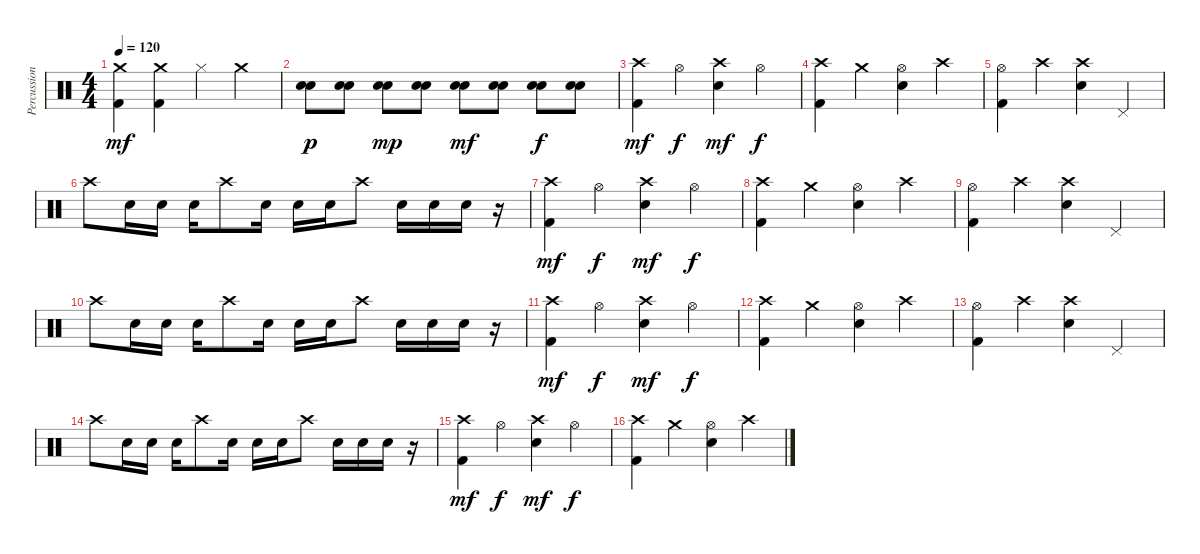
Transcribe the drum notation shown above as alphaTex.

\track ("Percussioni" "Percussion") {instrument percussion}
\staff {score}
\articulation defaults
\ts (4 4)
\tempo 120
\clef neutral
\ks c
("Crash medium (hit)" "Kick (hit) 2").4{dy mf} ("Crash medium (hit)" "Kick (hit) 2").4 "Hi-Hat (closed)".4 "Crash medium (hit)".4 |
("Snare (hit) 2" "Snare (hit) 2").8{dy p} ("Snare (hit) 2" "Snare (hit) 2").8 ("Snare (hit) 2" "Snare (hit) 2").8{dy mp} ("Snare (hit) 2" "Snare (hit) 2").8 ("Snare (hit) 2" "Snare (hit) 2").8{dy mf} ("Snare (hit) 2" "Snare (hit) 2").8 ("Snare (hit) 2" "Snare (hit) 2").8{dy f} ("Snare (hit) 2" "Snare (hit) 2").8 |
("Crash high (hit)" "Kick (hit) 2").4{dy mf} "Hi-Hat (open)".4{dy f} ("Crash high (hit)" "Snare (hit) 2").4{dy mf} "Hi-Hat (open)".4{dy f} |
("Crash high (hit)" "Kick (hit) 2").4 "Crash medium (hit)".4 ("Hi-Hat (open)" "Snare (hit) 2").4 "Crash high (hit)".4 |
("Hi-Hat (open)" "Kick (hit) 2").4 "Crash high (hit)".4 ("Crash high (hit)" "Snare (hit) 2").4 "Pedal Hi-Hat (hit)".4 |
"Crash high (hit)".8 "Snare (hit) 2".16 "Snare (hit) 2".16 "Snare (hit) 2".16 "Crash high (hit)".8 "Snare (hit) 2".16 "Snare (hit) 2".16 "Snare (hit) 2".16 "Crash high (hit)".8 "Snare (hit) 2".16 "Snare (hit) 2".16 "Snare (hit) 2".16 r.16 |
("Crash high (hit)" "Kick (hit) 2").4{dy mf} "Hi-Hat (open)".4{dy f} ("Crash high (hit)" "Snare (hit) 2").4{dy mf} "Hi-Hat (open)".4{dy f} |
("Crash high (hit)" "Kick (hit) 2").4 "Crash medium (hit)".4 ("Hi-Hat (open)" "Snare (hit) 2").4 "Crash high (hit)".4 |
("Hi-Hat (open)" "Kick (hit) 2").4 "Crash high (hit)".4 ("Crash high (hit)" "Snare (hit) 2").4 "Pedal Hi-Hat (hit)".4 |
"Crash high (hit)".8 "Snare (hit) 2".16 "Snare (hit) 2".16 "Snare (hit) 2".16 "Crash high (hit)".8 "Snare (hit) 2".16 "Snare (hit) 2".16 "Snare (hit) 2".16 "Crash high (hit)".8 "Snare (hit) 2".16 "Snare (hit) 2".16 "Snare (hit) 2".16 r.16 |
("Crash high (hit)" "Kick (hit) 2").4{dy mf} "Hi-Hat (open)".4{dy f} ("Crash high (hit)" "Snare (hit) 2").4{dy mf} "Hi-Hat (open)".4{dy f} |
("Crash high (hit)" "Kick (hit) 2").4 "Crash medium (hit)".4 ("Hi-Hat (open)" "Snare (hit) 2").4 "Crash high (hit)".4 |
("Hi-Hat (open)" "Kick (hit) 2").4 "Crash high (hit)".4 ("Crash high (hit)" "Snare (hit) 2").4 "Pedal Hi-Hat (hit)".4 |
"Crash high (hit)".8 "Snare (hit) 2".16 "Snare (hit) 2".16 "Snare (hit) 2".16 "Crash high (hit)".8 "Snare (hit) 2".16 "Snare (hit) 2".16 "Snare (hit) 2".16 "Crash high (hit)".8 "Snare (hit) 2".16 "Snare (hit) 2".16 "Snare (hit) 2".16 r.16 |
("Crash high (hit)" "Kick (hit) 2").4{dy mf} "Hi-Hat (open)".4{dy f} ("Crash high (hit)" "Snare (hit) 2").4{dy mf} "Hi-Hat (open)".4{dy f} |
("Crash high (hit)" "Kick (hit) 2").4 "Crash medium (hit)".4 ("Hi-Hat (open)" "Snare (hit) 2").4 "Crash high (hit)".4
